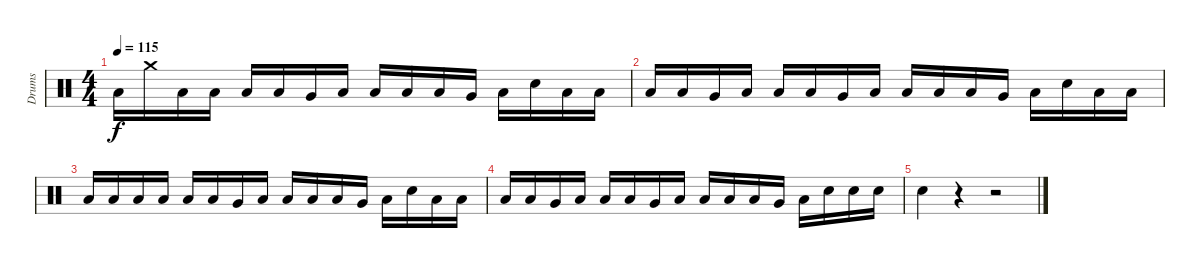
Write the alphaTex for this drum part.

\track ("Drums" "Drums") {instrument percussion}
\staff {score}
\articulation defaults
\ts (4 4)
\tempo 115
\clef neutral
\ks c "Low Floor Tom (hit)".16{dy f} "Crash medium (hit)".16 "Low Floor Tom (hit)".16 "Low Floor Tom (hit)".16 "Low Floor Tom (hit)".16 "Low Floor Tom (hit)".16 "Very Low Tom (hit)".16 "Low Floor Tom (hit)".16 "Low Floor Tom (hit)".16 "Low Floor Tom (hit)".16 "Low Floor Tom (hit)".16 "Very Low Tom (hit)".16 "Low Floor Tom (hit)".16 "Snare (hit) 2".16 "Low Floor Tom (hit)".16 "Low Floor Tom (hit)".16
|
"Low Floor Tom (hit)".16 "Low Floor Tom (hit)".16 "Very Low Tom (hit)".16 "Low Floor Tom (hit)".16 "Low Floor Tom (hit)".16 "Low Floor Tom (hit)".16 "Very Low Tom (hit)".16 "Low Floor Tom (hit)".16 "Low Floor Tom (hit)".16 "Low Floor Tom (hit)".16 "Low Floor Tom (hit)".16 "Very Low Tom (hit)".16 "Low Floor Tom (hit)".16 "Snare (hit) 2".16 "Low Floor Tom (hit)".16 "Low Floor Tom (hit)".16 |
"Low Floor Tom (hit)".16 "Low Tom (hit)".16 "Low Floor Tom (hit)".16 "Low Floor Tom (hit)".16 "Low Floor Tom (hit)".16 "Low Floor Tom (hit)".16 "Very Low Tom (hit)".16 "Low Floor Tom (hit)".16 "Low Floor Tom (hit)".16 "Low Floor Tom (hit)".16 "Low Floor Tom (hit)".16 "Very Low Tom (hit)".16 "Low Floor Tom (hit)".16 "Snare (hit) 2".16 "Low Floor Tom (hit)".16 "Low Floor Tom (hit)".16 |
"Low Floor Tom (hit)".16 "Low Floor Tom (hit)".16 "Very Low Tom (hit)".16 "Low Floor Tom (hit)".16 "Low Floor Tom (hit)".16 "Low Floor Tom (hit)".16 "Very Low Tom (hit)".16 "Low Floor Tom (hit)".16 "Low Floor Tom (hit)".16 "Low Floor Tom (hit)".16 "Low Floor Tom (hit)".16 "Very Low Tom (hit)".16 "Low Floor Tom (hit)".16 "Snare (hit) 2".16 "Snare (hit) 2".16 "Snare (hit) 2".16 |
"Snare (hit) 2".4 r.4 r.2
